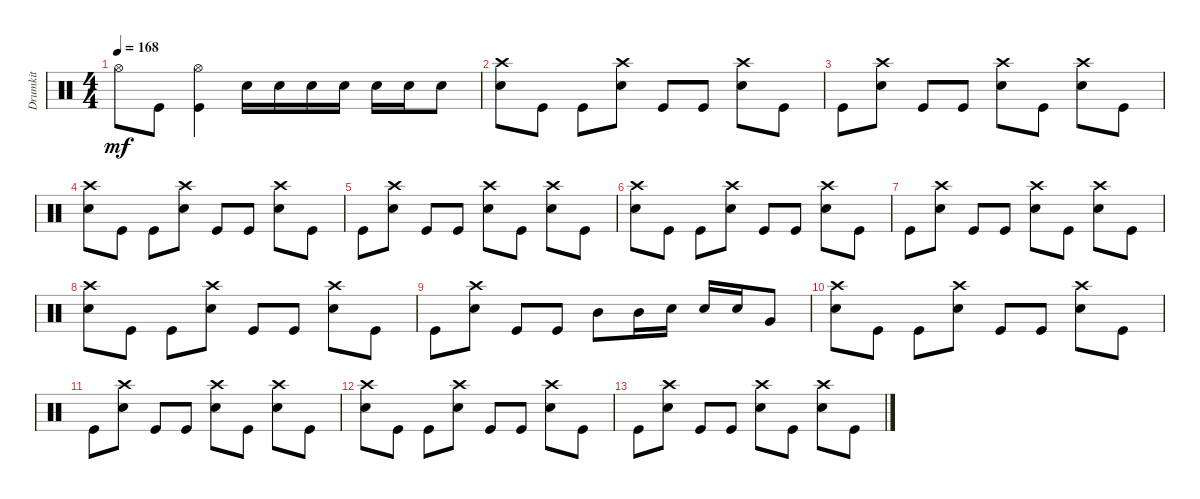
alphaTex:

\track ("Drumkit" "Drumkit") {instrument percussion}
\staff {score}
\articulation defaults
\ts (4 4)
\tempo 168
\clef neutral
\ks c "Hi-Hat (open)".8{dy mf} "Kick (hit)".8
("Kick (hit)" "Hi-Hat (open)").4 "Snare (hit) 2".16 "Snare (hit) 2".16 "Snare (hit) 2".16 "Snare (hit) 2".16 "Snare (hit) 2".16 "Snare (hit) 2".16 "Snare (hit) 2".8 |
("Crash high (hit)" "Snare (hit) 2").8 "Kick (hit)".8 "Kick (hit)".8 ("Snare (hit) 2" "Crash high (hit)").8 "Kick (hit)".8 "Kick (hit)".8 ("Snare (hit) 2" "Crash high (hit)").8 "Kick (hit)".8 |
"Kick (hit)".8 ("Snare (hit) 2" "Crash high (hit)").8 "Kick (hit)".8 "Kick (hit)".8 ("Snare (hit) 2" "Crash high (hit)").8 "Kick (hit)".8 ("Snare (hit) 2" "Crash high (hit)").8 "Kick (hit)".8 |
("Crash high (hit)" "Snare (hit) 2").8 "Kick (hit)".8 "Kick (hit)".8 ("Snare (hit) 2" "Crash high (hit)").8 "Kick (hit)".8 "Kick (hit)".8 ("Snare (hit) 2" "Crash high (hit)").8 "Kick (hit)".8 |
"Kick (hit)".8 ("Snare (hit) 2" "Crash high (hit)").8 "Kick (hit)".8 "Kick (hit)".8 ("Snare (hit) 2" "Crash high (hit)").8 "Kick (hit)".8 ("Snare (hit) 2" "Crash high (hit)").8 "Kick (hit)".8 |
("Crash high (hit)" "Snare (hit) 2").8 "Kick (hit)".8 "Kick (hit)".8 ("Snare (hit) 2" "Crash high (hit)").8 "Kick (hit)".8 "Kick (hit)".8 ("Snare (hit) 2" "Crash high (hit)").8 "Kick (hit)".8 |
"Kick (hit)".8 ("Snare (hit) 2" "Crash high (hit)").8 "Kick (hit)".8 "Kick (hit)".8 ("Snare (hit) 2" "Crash high (hit)").8 "Kick (hit)".8 ("Snare (hit) 2" "Crash high (hit)").8 "Kick (hit)".8 |
("Crash high (hit)" "Snare (hit) 2").8 "Kick (hit)".8 "Kick (hit)".8 ("Snare (hit) 2" "Crash high (hit)").8 "Kick (hit)".8 "Kick (hit)".8 ("Snare (hit) 2" "Crash high (hit)").8 "Kick (hit)".8 |
"Kick (hit)".8 ("Snare (hit) 2" "Crash high (hit)").8 "Kick (hit)".8 "Kick (hit)".8 "Mid Tom (hit)".8 "Mid Tom (hit)".16 "Snare (hit) 2".16 "Snare (hit) 2".16 "Snare (hit) 2".16 "Very Low Tom (hit)".8 |
("Crash high (hit)" "Snare (hit) 2").8 "Kick (hit)".8 "Kick (hit)".8 ("Snare (hit) 2" "Crash high (hit)").8 "Kick (hit)".8 "Kick (hit)".8 ("Snare (hit) 2" "Crash high (hit)").8 "Kick (hit)".8 |
"Kick (hit)".8 ("Snare (hit) 2" "Crash high (hit)").8 "Kick (hit)".8 "Kick (hit)".8 ("Snare (hit) 2" "Crash high (hit)").8 "Kick (hit)".8 ("Snare (hit) 2" "Crash high (hit)").8 "Kick (hit)".8 |
("Crash high (hit)" "Snare (hit) 2").8 "Kick (hit)".8 "Kick (hit)".8 ("Snare (hit) 2" "Crash high (hit)").8 "Kick (hit)".8 "Kick (hit)".8 ("Snare (hit) 2" "Crash high (hit)").8 "Kick (hit)".8 |
"Kick (hit)".8 ("Snare (hit) 2" "Crash high (hit)").8 "Kick (hit)".8 "Kick (hit)".8 ("Snare (hit) 2" "Crash high (hit)").8 "Kick (hit)".8 ("Snare (hit) 2" "Crash high (hit)").8 "Kick (hit)".8
